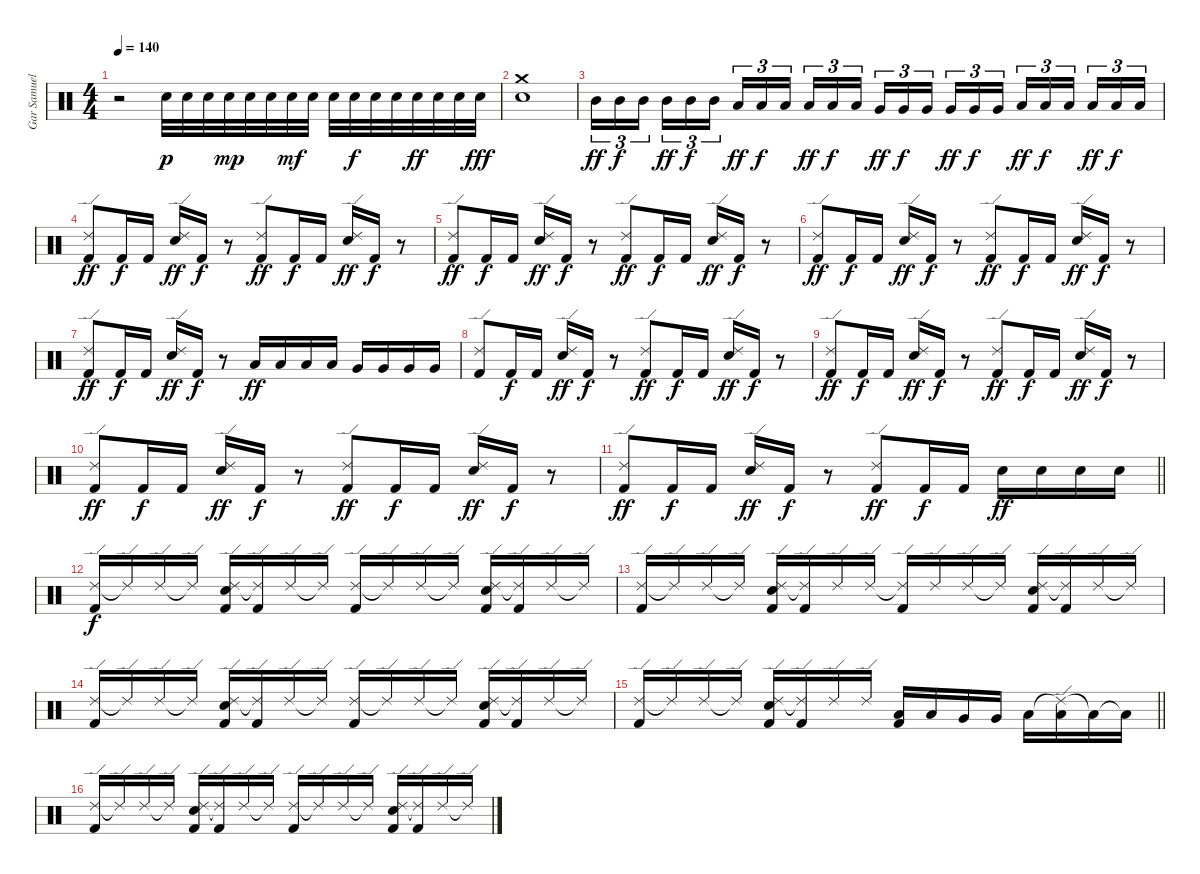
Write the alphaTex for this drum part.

\track ("Gar Samuelson" "Gar Samuel") {instrument percussion}
\staff {score}
\articulation defaults
\ts (4 4)
\tempo 140
\clef neutral
\ks c
r.2{dy f} "Snare (hit) 2".32{dy p} "Snare (hit) 2".32 "Snare (hit) 2".32 "Snare (hit) 2".32{dy mp} "Snare (hit) 2".32 "Snare (hit) 2".32 "Snare (hit) 2".32{dy mf} "Snare (hit) 2".32 "Snare (hit) 2".32 "Snare (hit) 2".32{dy f} "Snare (hit) 2".32 "Snare (hit) 2".32 "Snare (hit) 2".32{dy ff} "Snare (hit) 2".32 "Snare (hit) 2".32 "Snare (hit) 2".32{dy fff} |
("Crash medium (hit)" "Snare (hit) 2").1 |
"Mid Tom (hit)".16{tu (3 2) dy ff} "Mid Tom (hit)".16{tu (3 2) dy f} "Mid Tom (hit)".16{tu (3 2) beam splitsecondary} "Mid Tom (hit)".16{tu (3 2) dy ff} "Mid Tom (hit)".16{tu (3 2) dy f} "Mid Tom (hit)".16{tu (3 2)} "Low Tom (hit)".16{tu (3 2) dy ff} "Low Tom (hit)".16{tu (3 2) dy f} "Low Tom (hit)".16{tu (3 2) beam splitsecondary} "Low Tom (hit)".16{tu (3 2) dy ff} "Low Tom (hit)".16{tu (3 2) dy f} "Low Tom (hit)".16{tu (3 2)} "Very Low Tom (hit)".16{tu (3 2) dy ff} "Very Low Tom (hit)".16{tu (3 2) dy f} "Very Low Tom (hit)".16{tu (3 2) beam splitsecondary} "Very Low Tom (hit)".16{tu (3 2) dy ff} "Very Low Tom (hit)".16{tu (3 2) dy f} "Very Low Tom (hit)".16{tu (3 2)} "Low Floor Tom (hit)".16{tu (3 2) dy ff} "Low Floor Tom (hit)".16{tu (3 2) dy f} "Low Floor Tom (hit)".16{tu (3 2) beam splitsecondary} "Low Floor Tom (hit)".16{tu (3 2) dy ff} "Low Floor Tom (hit)".16{tu (3 2) dy f} "Low Floor Tom (hit)".16{tu (3 2)} |
("Ride (edge) 2" "Kick (hit) 2").8{dy ff} "Kick (hit) 2".16{dy f} "Kick (hit) 2".16 ("Ride (edge) 2" "Snare (hit) 2").16{dy ff} "Kick (hit) 2".16{dy f} r.8 ("Ride (edge) 2" "Kick (hit) 2").8{dy ff} "Kick (hit) 2".16{dy f} "Kick (hit) 2".16 ("Ride (edge) 2" "Snare (hit) 2").16{dy ff} "Kick (hit) 2".16{dy f} r.8 |
("Ride (edge) 2" "Kick (hit) 2").8{dy ff} "Kick (hit) 2".16{dy f} "Kick (hit) 2".16 ("Ride (edge) 2" "Snare (hit) 2").16{dy ff} "Kick (hit) 2".16{dy f} r.8 ("Ride (edge) 2" "Kick (hit) 2").8{dy ff} "Kick (hit) 2".16{dy f} "Kick (hit) 2".16 ("Ride (edge) 2" "Snare (hit) 2").16{dy ff} "Kick (hit) 2".16{dy f} r.8 |
("Ride (edge) 2" "Kick (hit) 2").8{dy ff} "Kick (hit) 2".16{dy f} "Kick (hit) 2".16 ("Ride (edge) 2" "Snare (hit) 2").16{dy ff} "Kick (hit) 2".16{dy f} r.8 ("Ride (edge) 2" "Kick (hit) 2").8{dy ff} "Kick (hit) 2".16{dy f} "Kick (hit) 2".16 ("Ride (edge) 2" "Snare (hit) 2").16{dy ff} "Kick (hit) 2".16{dy f} r.8 |
("Ride (edge) 2" "Kick (hit) 2").8{dy ff} "Kick (hit) 2".16{dy f} "Kick (hit) 2".16 ("Ride (edge) 2" "Snare (hit) 2").16{dy ff} "Kick (hit) 2".16{dy f} r.8 "Low Tom (hit)".16{dy ff} "Low Tom (hit)".16 "Low Tom (hit)".16 "Low Tom (hit)".16 "Very Low Tom (hit)".16 "Very Low Tom (hit)".16 "Very Low Tom (hit)".16 "Very Low Tom (hit)".16 |
("Ride (edge) 2" "Kick (hit) 2").8 "Kick (hit) 2".16{dy f} "Kick (hit) 2".16 ("Ride (edge) 2" "Snare (hit) 2").16{dy ff} "Kick (hit) 2".16{dy f} r.8 ("Ride (edge) 2" "Kick (hit) 2").8{dy ff} "Kick (hit) 2".16{dy f} "Kick (hit) 2".16 ("Ride (edge) 2" "Snare (hit) 2").16{dy ff} "Kick (hit) 2".16{dy f} r.8 |
("Ride (edge) 2" "Kick (hit) 2").8{dy ff} "Kick (hit) 2".16{dy f} "Kick (hit) 2".16 ("Ride (edge) 2" "Snare (hit) 2").16{dy ff} "Kick (hit) 2".16{dy f} r.8 ("Ride (edge) 2" "Kick (hit) 2").8{dy ff} "Kick (hit) 2".16{dy f} "Kick (hit) 2".16 ("Ride (edge) 2" "Snare (hit) 2").16{dy ff} "Kick (hit) 2".16{dy f} r.8 |
("Ride (edge) 2" "Kick (hit) 2").8{dy ff} "Kick (hit) 2".16{dy f} "Kick (hit) 2".16 ("Ride (edge) 2" "Snare (hit) 2").16{dy ff} "Kick (hit) 2".16{dy f} r.8 ("Ride (edge) 2" "Kick (hit) 2").8{dy ff} "Kick (hit) 2".16{dy f} "Kick (hit) 2".16 ("Ride (edge) 2" "Snare (hit) 2").16{dy ff} "Kick (hit) 2".16{dy f} r.8 |
\barLineRight lightlight
("Ride (edge) 2" "Kick (hit) 2").8{dy ff} "Kick (hit) 2".16{dy f} "Kick (hit) 2".16 ("Ride (edge) 2" "Snare (hit) 2").16{dy ff} "Kick (hit) 2".16{dy f} r.8 ("Ride (edge) 2" "Kick (hit) 2").8{dy ff} "Kick (hit) 2".16{dy f} "Kick (hit) 2".16 "Snare (hit) 2".16{dy ff} "Snare (hit) 2".16 "Snare (hit) 2".16 "Snare (hit) 2".16 |
("Ride (edge) 2" "Kick (hit) 2").16{dy f} "Ride (edge) 2"{t}.16 "Ride (edge) 2".16 "Ride (edge) 2"{t}.16 ("Ride (edge) 2" "Snare (hit) 2" "Kick (hit) 2").16 ("Ride (edge) 2"{t} "Kick (hit) 2").16 "Ride (edge) 2".16 "Ride (edge) 2"{t}.16 ("Ride (edge) 2" "Kick (hit) 2").16 "Ride (edge) 2"{t}.16 "Ride (edge) 2".16 "Ride (edge) 2"{t}.16 ("Ride (edge) 2" "Snare (hit) 2" "Kick (hit) 2").16 ("Ride (edge) 2"{t} "Kick (hit) 2").16 "Ride (edge) 2".16 "Ride (edge) 2"{t}.16 |
("Ride (edge) 2" "Kick (hit) 2").16 "Ride (edge) 2"{t}.16 "Ride (edge) 2".16 "Ride (edge) 2"{t}.16 ("Ride (edge) 2" "Snare (hit) 2" "Kick (hit) 2").16 ("Ride (edge) 2"{t} "Kick (hit) 2").16 "Ride (edge) 2".16 "Ride (edge) 2".16 ("Ride (edge) 2"{t} "Kick (hit) 2").16 "Ride (edge) 2".16 "Ride (edge) 2".16 "Ride (edge) 2"{t}.16 ("Ride (edge) 2" "Snare (hit) 2" "Kick (hit) 2").16 ("Ride (edge) 2"{t} "Kick (hit) 2").16 "Ride (edge) 2".16 "Ride (edge) 2"{t}.16 |
("Ride (edge) 2" "Kick (hit) 2").16 "Ride (edge) 2"{t}.16 "Ride (edge) 2".16 "Ride (edge) 2"{t}.16 ("Ride (edge) 2" "Snare (hit) 2" "Kick (hit) 2").16 ("Ride (edge) 2"{t} "Kick (hit) 2").16 "Ride (edge) 2".16 "Ride (edge) 2"{t}.16 ("Ride (edge) 2" "Kick (hit) 2").16 "Ride (edge) 2"{t}.16 "Ride (edge) 2".16 "Ride (edge) 2"{t}.16 ("Ride (edge) 2" "Snare (hit) 2" "Kick (hit) 2").16 ("Ride (edge) 2"{t} "Kick (hit) 2").16 "Ride (edge) 2".16 "Ride (edge) 2"{t}.16 |
\barLineRight lightlight
("Ride (edge) 2" "Kick (hit) 2").16 "Ride (edge) 2"{t}.16 "Ride (edge) 2".16 "Ride (edge) 2"{t}.16 ("Ride (edge) 2" "Snare (hit) 2" "Kick (hit) 2").16 ("Ride (edge) 2"{t} "Kick (hit) 2").16 "Ride (edge) 2".16 "Ride (edge) 2".16 ("Low Tom (hit)" "Kick (hit) 2").16 "Low Tom (hit)".16 "Very Low Tom (hit)".16 "Very Low Tom (hit)".16 "Low Floor Tom (hit)".16 ("Ride (edge) 2"{t} "Low Floor Tom (hit)").16 "Low Floor Tom (hit)"{t}.16 "Low Floor Tom (hit)"{t}.16 |
("Ride (edge) 2" "Kick (hit) 2").16 "Ride (edge) 2"{t}.16 "Ride (edge) 2".16 "Ride (edge) 2"{t}.16 ("Ride (edge) 2" "Snare (hit) 2" "Kick (hit) 2").16 ("Ride (edge) 2"{t} "Kick (hit) 2").16 "Ride (edge) 2".16 "Ride (edge) 2"{t}.16 ("Ride (edge) 2" "Kick (hit) 2").16 "Ride (edge) 2"{t}.16 "Ride (edge) 2".16 "Ride (edge) 2"{t}.16 ("Ride (edge) 2" "Snare (hit) 2" "Kick (hit) 2").16 ("Ride (edge) 2"{t} "Kick (hit) 2").16 "Ride (edge) 2".16 "Ride (edge) 2"{t}.16
